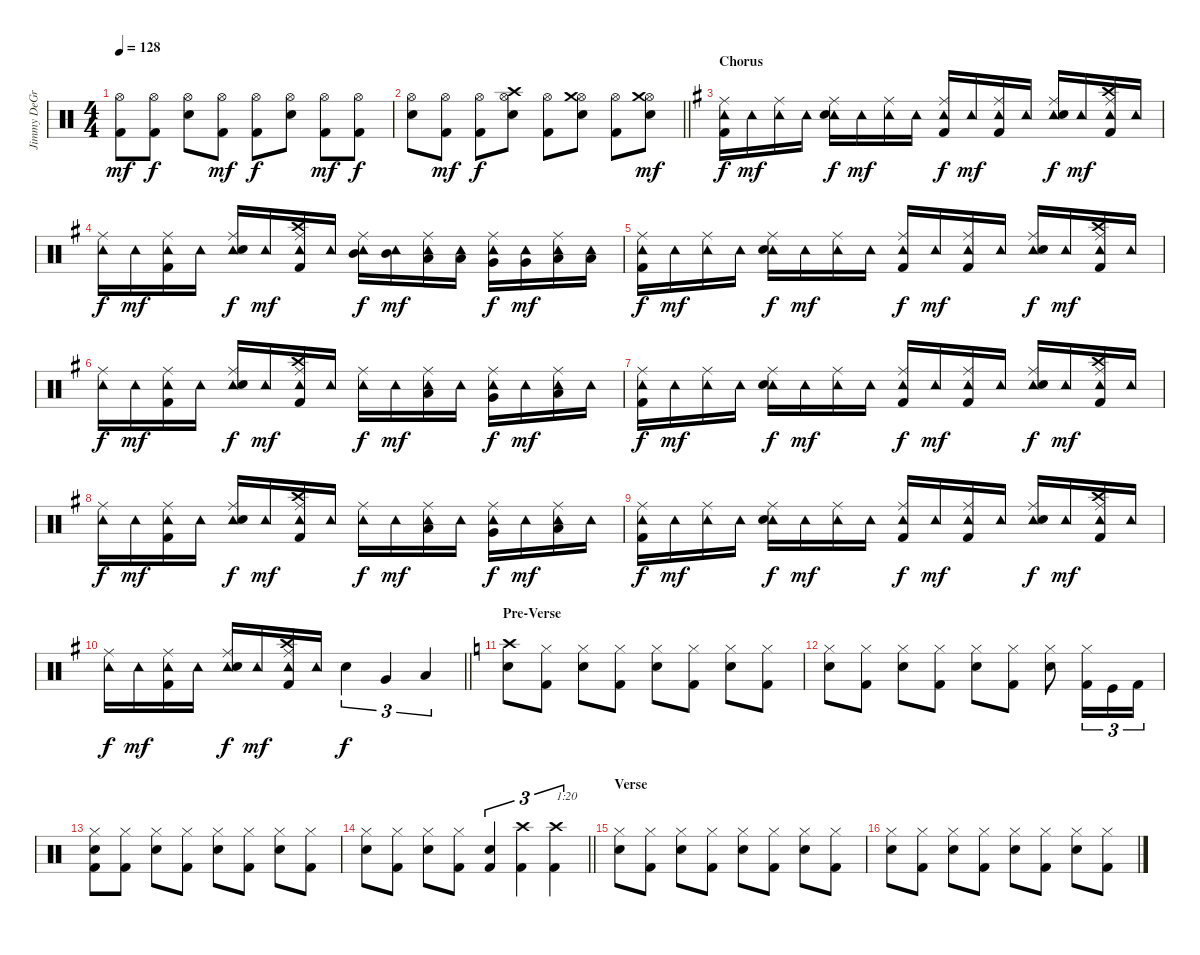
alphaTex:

\track ("Jimmy DeGrasso" "Jimmy DeGr") {instrument percussion}
\staff {score}
\articulation defaults
\ts (4 4)
\tempo 128
\clef neutral
\ks c
("Hi-Hat (open)" "Kick (hit) 2").8{dy mf} ("Hi-Hat (open)" "Kick (hit) 2").8{dy f} ("Hi-Hat (open)" "Snare (hit) 2").8 ("Hi-Hat (open)" "Kick (hit) 2").8{dy mf} ("Hi-Hat (open)" "Kick (hit) 2").8{dy f} ("Hi-Hat (open)" "Snare (hit) 2").8 ("Hi-Hat (open)" "Kick (hit) 2").8{dy mf} ("Hi-Hat (open)" "Kick (hit) 2").8{dy f} |
\barLineRight lightlight
("Hi-Hat (open)" "Snare (hit) 2").8 ("Hi-Hat (open)" "Kick (hit) 2").8{dy mf} ("Hi-Hat (open)" "Kick (hit) 2").8{dy f} ("Hi-Hat (open)" "Crash high (hit)" "Snare (hit) 2").8 ("Hi-Hat (open)" "Kick (hit) 2").8 ("Hi-Hat (open)" "Crash medium (hit)" "Snare (hit) 2").8 ("Hi-Hat (open)" "Kick (hit) 2").8 ("Hi-Hat (open)" "Crash medium (hit)" "Snare (hit) 2").8{dy mf} |
\section ("" "Chorus")
\ks g
("Ride (middle)" "Tambourine (hit)" "Kick (hit) 2").16{dy f} "Tambourine (hit)".16{dy mf} ("Ride (middle)" "Tambourine (hit)").16 "Tambourine (hit)".16 ("Ride (middle)" "Tambourine (hit)" "Snare (hit) 2").16{dy f} "Tambourine (hit)".16{dy mf} ("Ride (middle)" "Tambourine (hit)").16 "Tambourine (hit)".16 ("Ride (middle)" "Tambourine (hit)" "Kick (hit) 2").16{dy f} "Tambourine (hit)".16{dy mf} ("Ride (middle)" "Tambourine (hit)" "Kick (hit) 2").16 "Tambourine (hit)".16 ("Ride (middle)" "Tambourine (hit)" "Snare (hit) 2").16{dy f} "Tambourine (hit)".16{dy mf} ("Ride (middle)" "Tambourine (hit)" "Crash high (hit)" "Kick (hit) 2").16 "Tambourine (hit)".16 |
("Ride (middle)" "Tambourine (hit)").16{dy f} "Tambourine (hit)".16{dy mf} ("Ride (middle)" "Tambourine (hit)" "Kick (hit) 2").16 "Tambourine (hit)".16 ("Ride (middle)" "Tambourine (hit)" "Snare (hit) 2").16{dy f} "Tambourine (hit)".16{dy mf} ("Ride (middle)" "Tambourine (hit)" "Crash high (hit)" "Kick (hit) 2").16 "Tambourine (hit)".16 ("Ride (middle)" "Tambourine (hit)" "Mid Tom (hit)").16{dy f} ("Tambourine (hit)" "Mid Tom (hit)").16{dy mf} ("Ride (middle)" "Tambourine (hit)" "Low Tom (hit)").16 ("Tambourine (hit)" "Low Tom (hit)").16 ("Ride (middle)" "Tambourine (hit)" "Very Low Tom (hit)").16{dy f} ("Tambourine (hit)" "Very Low Tom (hit)").16{dy mf} ("Ride (middle)" "Tambourine (hit)" "Low Floor Tom (hit)").16 ("Tambourine (hit)" "Low Floor Tom (hit)").16 |
("Ride (middle)" "Tambourine (hit)" "Kick (hit) 2").16{dy f} "Tambourine (hit)".16{dy mf} ("Ride (middle)" "Tambourine (hit)").16 "Tambourine (hit)".16 ("Ride (middle)" "Tambourine (hit)" "Snare (hit) 2").16{dy f} "Tambourine (hit)".16{dy mf} ("Ride (middle)" "Tambourine (hit)").16 "Tambourine (hit)".16 ("Ride (middle)" "Tambourine (hit)" "Kick (hit) 2").16{dy f} "Tambourine (hit)".16{dy mf} ("Ride (middle)" "Tambourine (hit)" "Kick (hit) 2").16 "Tambourine (hit)".16 ("Ride (middle)" "Tambourine (hit)" "Snare (hit) 2").16{dy f} "Tambourine (hit)".16{dy mf} ("Ride (middle)" "Tambourine (hit)" "Crash high (hit)" "Kick (hit) 2").16 "Tambourine (hit)".16 |
("Ride (middle)" "Tambourine (hit)").16{dy f} "Tambourine (hit)".16{dy mf} ("Ride (middle)" "Tambourine (hit)" "Kick (hit) 2").16 "Tambourine (hit)".16 ("Ride (middle)" "Tambourine (hit)" "Snare (hit) 2").16{dy f} "Tambourine (hit)".16{dy mf} ("Ride (middle)" "Tambourine (hit)" "Crash high (hit)" "Kick (hit) 2").16 "Tambourine (hit)".16 ("Ride (middle)" "Tambourine (hit)").16{dy f} "Tambourine (hit)".16{dy mf} ("Ride (middle)" "Tambourine (hit)" "Low Tom (hit)").16 "Tambourine (hit)".16 ("Ride (middle)" "Tambourine (hit)" "Very Low Tom (hit)").16{dy f} "Tambourine (hit)".16{dy mf} ("Ride (middle)" "Tambourine (hit)" "Low Floor Tom (hit)").16 "Tambourine (hit)".16 |
("Ride (middle)" "Tambourine (hit)" "Kick (hit) 2").16{dy f} "Tambourine (hit)".16{dy mf} ("Ride (middle)" "Tambourine (hit)").16 "Tambourine (hit)".16 ("Ride (middle)" "Tambourine (hit)" "Snare (hit) 2").16{dy f} "Tambourine (hit)".16{dy mf} ("Ride (middle)" "Tambourine (hit)").16 "Tambourine (hit)".16 ("Ride (middle)" "Tambourine (hit)" "Kick (hit) 2").16{dy f} "Tambourine (hit)".16{dy mf} ("Ride (middle)" "Tambourine (hit)" "Kick (hit) 2").16 "Tambourine (hit)".16 ("Ride (middle)" "Tambourine (hit)" "Snare (hit) 2").16{dy f} "Tambourine (hit)".16{dy mf} ("Ride (middle)" "Tambourine (hit)" "Crash high (hit)" "Kick (hit) 2").16 "Tambourine (hit)".16 |
("Ride (middle)" "Tambourine (hit)").16{dy f} "Tambourine (hit)".16{dy mf} ("Ride (middle)" "Tambourine (hit)" "Kick (hit) 2").16 "Tambourine (hit)".16 ("Ride (middle)" "Tambourine (hit)" "Snare (hit) 2").16{dy f} "Tambourine (hit)".16{dy mf} ("Ride (middle)" "Tambourine (hit)" "Crash high (hit)" "Kick (hit) 2").16 "Tambourine (hit)".16 ("Ride (middle)" "Tambourine (hit)").16{dy f} "Tambourine (hit)".16{dy mf} ("Ride (middle)" "Tambourine (hit)" "Low Tom (hit)").16 "Tambourine (hit)".16 ("Ride (middle)" "Tambourine (hit)" "Very Low Tom (hit)").16{dy f} "Tambourine (hit)".16{dy mf} ("Ride (middle)" "Tambourine (hit)" "Low Floor Tom (hit)").16 "Tambourine (hit)".16 |
("Ride (middle)" "Tambourine (hit)" "Kick (hit) 2").16{dy f} "Tambourine (hit)".16{dy mf} ("Ride (middle)" "Tambourine (hit)").16 "Tambourine (hit)".16 ("Ride (middle)" "Tambourine (hit)" "Snare (hit) 2").16{dy f} "Tambourine (hit)".16{dy mf} ("Ride (middle)" "Tambourine (hit)").16 "Tambourine (hit)".16 ("Ride (middle)" "Tambourine (hit)" "Kick (hit) 2").16{dy f} "Tambourine (hit)".16{dy mf} ("Ride (middle)" "Tambourine (hit)" "Kick (hit) 2").16 "Tambourine (hit)".16 ("Ride (middle)" "Tambourine (hit)" "Snare (hit) 2").16{dy f} "Tambourine (hit)".16{dy mf} ("Ride (middle)" "Tambourine (hit)" "Crash high (hit)" "Kick (hit) 2").16 "Tambourine (hit)".16 |
\barLineRight lightlight
("Ride (middle)" "Tambourine (hit)").16{dy f} "Tambourine (hit)".16{dy mf} ("Ride (middle)" "Tambourine (hit)" "Kick (hit) 2").16 "Tambourine (hit)".16 ("Ride (middle)" "Tambourine (hit)" "Snare (hit) 2").16{dy f} "Tambourine (hit)".16{dy mf} ("Ride (middle)" "Tambourine (hit)" "Crash high (hit)" "Kick (hit) 2").16 "Tambourine (hit)".16 "Snare (hit) 2".4{tu (3 2) dy f} "Very Low Tom (hit)".4{tu (3 2)} "Low Floor Tom (hit)".4{tu (3 2)} |
\section ("" "Pre-Verse")
\ks c
("Crash high (hit)" "Snare (hit) 2").8 ("Hi-Hat (closed)" "Kick (hit) 2").8 ("Hi-Hat (closed)" "Snare (hit) 2").8 ("Hi-Hat (closed)" "Kick (hit) 2").8 ("Hi-Hat (closed)" "Snare (hit) 2").8 ("Hi-Hat (closed)" "Kick (hit) 2").8 ("Hi-Hat (closed)" "Snare (hit) 2").8 ("Hi-Hat (closed)" "Kick (hit) 2").8 |
("Hi-Hat (closed)" "Snare (hit) 2").8 ("Hi-Hat (closed)" "Kick (hit) 2").8 ("Hi-Hat (closed)" "Snare (hit) 2").8 ("Hi-Hat (closed)" "Kick (hit) 2").8 ("Hi-Hat (closed)" "Snare (hit) 2").8 ("Hi-Hat (closed)" "Kick (hit) 2").8 ("Hi-Hat (closed)" "Snare (hit) 2").8 ("Hi-Hat (closed)" "Kick (hit) 2").16{tu (3 2)} "Kick (hit)".16{tu (3 2)} "Kick (hit) 2".16{tu (3 2)} |
("Hi-Hat (closed)" "Snare (hit) 2" "Kick (hit) 2").8 ("Hi-Hat (closed)" "Kick (hit) 2").8 ("Hi-Hat (closed)" "Snare (hit) 2").8 ("Hi-Hat (closed)" "Kick (hit) 2").8 ("Hi-Hat (closed)" "Snare (hit) 2").8 ("Hi-Hat (closed)" "Kick (hit) 2").8 ("Hi-Hat (closed)" "Snare (hit) 2").8 ("Hi-Hat (closed)" "Kick (hit) 2").8 |
\barLineRight lightlight
("Hi-Hat (closed)" "Snare (hit) 2").8 ("Hi-Hat (closed)" "Kick (hit) 2").8 ("Hi-Hat (closed)" "Snare (hit) 2").8 ("Hi-Hat (closed)" "Kick (hit) 2").8 ("Snare (hit) 2" "Kick (hit) 2").4{tu (3 2)} ("Crash high (hit)" "Kick (hit) 2").4{tu (3 2)} ("Crash high (hit)" "Kick (hit) 2").4{tu (3 2) txt "1:20"} |
\section ("" "Verse")
("Hi-Hat (closed)" "Snare (hit) 2").8 ("Hi-Hat (closed)" "Kick (hit) 2").8 ("Hi-Hat (closed)" "Snare (hit) 2").8 ("Hi-Hat (closed)" "Kick (hit) 2").8 ("Hi-Hat (closed)" "Snare (hit) 2").8 ("Hi-Hat (closed)" "Kick (hit) 2").8 ("Hi-Hat (closed)" "Snare (hit) 2").8 ("Hi-Hat (closed)" "Kick (hit) 2").8 |
("Hi-Hat (closed)" "Snare (hit) 2").8 ("Hi-Hat (closed)" "Kick (hit) 2").8 ("Hi-Hat (closed)" "Snare (hit) 2").8 ("Hi-Hat (closed)" "Kick (hit) 2").8 ("Hi-Hat (closed)" "Snare (hit) 2").8 ("Hi-Hat (closed)" "Kick (hit) 2").8 ("Hi-Hat (closed)" "Snare (hit) 2").8 ("Hi-Hat (closed)" "Kick (hit) 2").8
